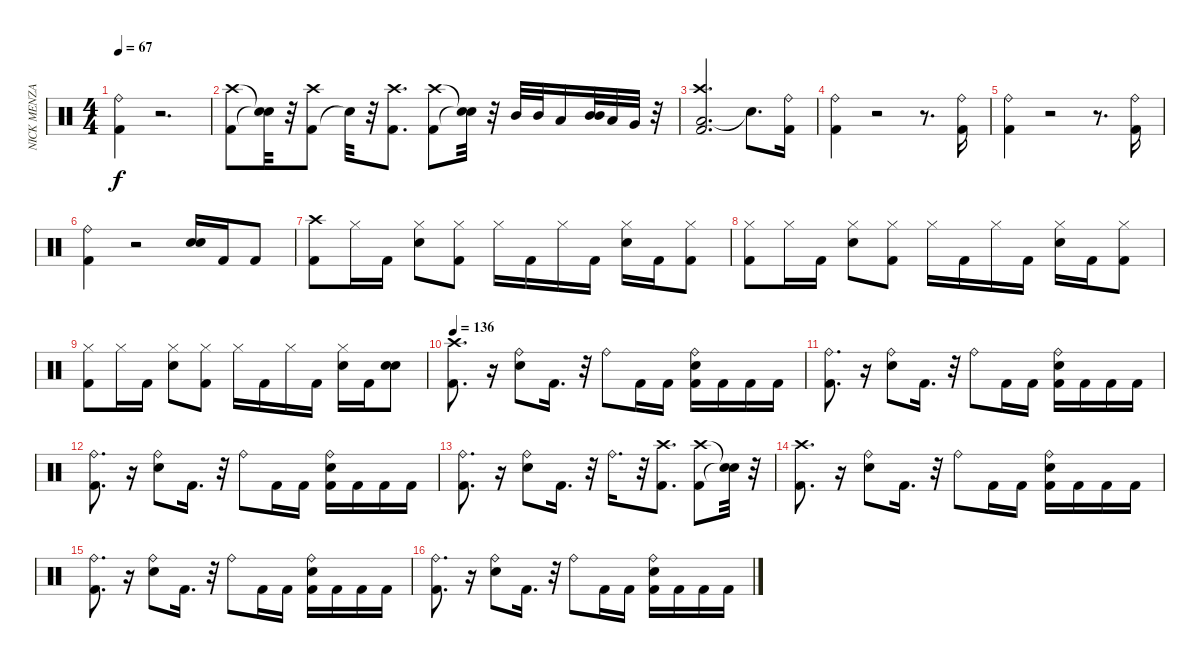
\track ("NICK MENZA" "NICK MENZA") {instrument percussion}
\staff {score}
\articulation defaults
\ts (4 4)
\tempo 67
\clef neutral
\ks c
("Ride (bell)" "Kick (hit) 2").4{dy f} r.2{d} |
("Crash high (hit)" "Kick (hit) 2").8 ("Snare (hit)"{t} "Snare (hit)"{t}).32 r.32 ("Kick (hit) 2" "Crash high (hit)").8 "Snare (hit)"{t}.32 r.32 ("Crash high (hit)" "Kick (hit) 2").8{d} ("Crash high (hit)" "Kick (hit) 2").8 ("Snare (hit)"{t} "Snare (hit)"{t}).32 r.32 "Mid Tom (hit)".32 "Mid Tom (hit)".32 "Low Tom (hit)".16 ("Mid Tom (hit)" "Mid Tom (hit)").32 "Low Tom (hit)".32 "Very Low Tom (hit)".32 r.32 |
("Low Floor Tom (hit)" "Crash high (hit)" "Kick (hit) 2").2{d} "Snare (hit)"{t}.8{d} ("Kick (hit) 2" "Ride (bell)").16 |
("Kick (hit) 2" "Ride (bell)").4 r.2 r.8{d} ("Kick (hit) 2" "Ride (bell)").16 |
("Kick (hit) 2" "Ride (bell)").4 r.2 r.8{d} ("Kick (hit) 2" "Ride (bell)").16 |
("Kick (hit) 2" "Ride (bell)").4 r.2 ("Snare (hit) 2" "Snare (hit) 2").16 "Kick (hit) 2".16 "Kick (hit) 2".8 |
("Crash high (hit)" "Kick (hit) 2").8 "Hi-Hat (closed)".16 "Kick (hit) 2".16 ("Hi-Hat (closed)" "Snare (hit) 2").8 ("Hi-Hat (closed)" "Kick (hit) 2").8 "Hi-Hat (closed)".16 "Kick (hit) 2".16 "Hi-Hat (closed)".16 "Kick (hit) 2".16 ("Snare (hit) 2" "Hi-Hat (closed)").16 "Kick (hit) 2".16 ("Kick (hit) 2" "Hi-Hat (closed)").8 |
("Hi-Hat (closed)" "Kick (hit) 2").8 "Hi-Hat (closed)".16 "Kick (hit) 2".16 ("Snare (hit) 2" "Hi-Hat (closed)").8 ("Hi-Hat (closed)" "Kick (hit) 2").8 "Hi-Hat (closed)".16 "Kick (hit) 2".16 "Hi-Hat (closed)".16 "Kick (hit) 2".16 ("Hi-Hat (closed)" "Snare (hit) 2").16 "Kick (hit) 2".16 ("Kick (hit) 2" "Hi-Hat (closed)").8 |
("Kick (hit) 2" "Hi-Hat (closed)").8 "Hi-Hat (closed)".16 "Kick (hit) 2".16 ("Hi-Hat (closed)" "Snare (hit) 2").8 ("Hi-Hat (closed)" "Kick (hit) 2").8 "Hi-Hat (closed)".16 "Kick (hit) 2".16 "Hi-Hat (closed)".16 "Kick (hit) 2".16 ("Snare (hit) 2" "Hi-Hat (closed)").16 "Kick (hit) 2".16 ("Snare (hit) 2" "Snare (hit) 2").8 |
\tempo 136
("Crash high (hit)" "Kick (hit) 2").8{d} r.16 ("Snare (hit) 2" "Ride (bell)").8 "Kick (hit) 2".16{d} r.32 "Ride (bell)".8 "Kick (hit) 2".16 "Kick (hit) 2".16 ("Ride (bell)" "Snare (hit) 2" "Kick (hit) 2").16 "Kick (hit) 2".16 "Kick (hit) 2".16 "Kick (hit) 2".16 |
("Ride (bell)" "Kick (hit) 2").8{d} r.16 ("Snare (hit) 2" "Ride (bell)").8 "Kick (hit) 2".16{d} r.32 "Ride (bell)".8 "Kick (hit) 2".16 "Kick (hit) 2".16 ("Snare (hit) 2" "Ride (bell)" "Kick (hit) 2").16 "Kick (hit) 2".16 "Kick (hit) 2".16 "Kick (hit) 2".16 |
("Ride (bell)" "Kick (hit) 2").8{d} r.16 ("Ride (bell)" "Snare (hit) 2").8 "Kick (hit) 2".16{d} r.32 "Ride (bell)".8 "Kick (hit) 2".16 "Kick (hit) 2".16 ("Ride (bell)" "Snare (hit) 2" "Kick (hit) 2").16 "Kick (hit) 2".16 "Kick (hit) 2".16 "Kick (hit) 2".16 |
("Ride (bell)" "Kick (hit) 2").8{d} r.16 ("Ride (bell)" "Snare (hit) 2").8 "Kick (hit) 2".16{d} r.32 "Ride (bell)".16{d} r.32 ("Crash high (hit)" "Kick (hit) 2").8{d} ("Kick (hit) 2" "Crash high (hit)").8 ("Snare (hit)"{t} "Snare (hit)"{t}).32 r.32 |
("Crash high (hit)" "Kick (hit) 2").8{d} r.16 ("Ride (bell)" "Snare (hit) 2").8 "Kick (hit) 2".16{d} r.32 "Ride (bell)".8 "Kick (hit) 2".16 "Kick (hit) 2".16 ("Ride (bell)" "Snare (hit) 2" "Kick (hit) 2").16 "Kick (hit) 2".16 "Kick (hit) 2".16 "Kick (hit) 2".16 |
("Ride (bell)" "Kick (hit) 2").8{d} r.16 ("Ride (bell)" "Snare (hit) 2").8 "Kick (hit) 2".16{d} r.32 "Ride (bell)".8 "Kick (hit) 2".16 "Kick (hit) 2".16 ("Kick (hit) 2" "Ride (bell)" "Snare (hit) 2").16 "Kick (hit) 2".16 "Kick (hit) 2".16 "Kick (hit) 2".16 |
("Ride (bell)" "Kick (hit) 2").8{d} r.16 ("Ride (bell)" "Snare (hit) 2").8 "Kick (hit) 2".16{d} r.32 "Ride (bell)".8 "Kick (hit) 2".16 "Kick (hit) 2".16 ("Snare (hit) 2" "Ride (bell)" "Kick (hit) 2").16 "Kick (hit) 2".16 "Kick (hit) 2".16 "Kick (hit) 2".16
